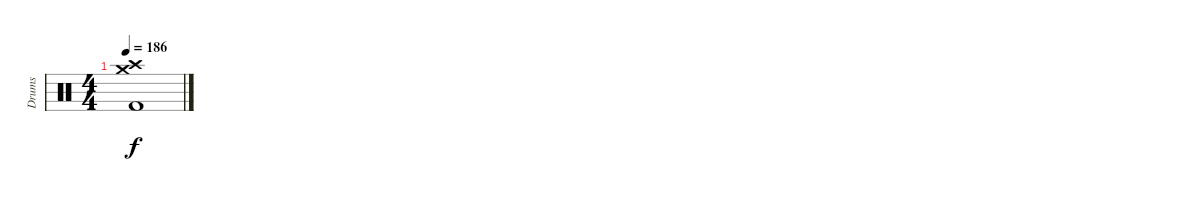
\track ("Drums" "Drums") {instrument percussion}
\staff {score}
\articulation defaults
\ts (4 4)
\section ("" "")
\tempo 186
\clef neutral
\ks c
("Crash medium (hit)" "Crash high (hit)" "Kick (hit) 2").1{dy f}
